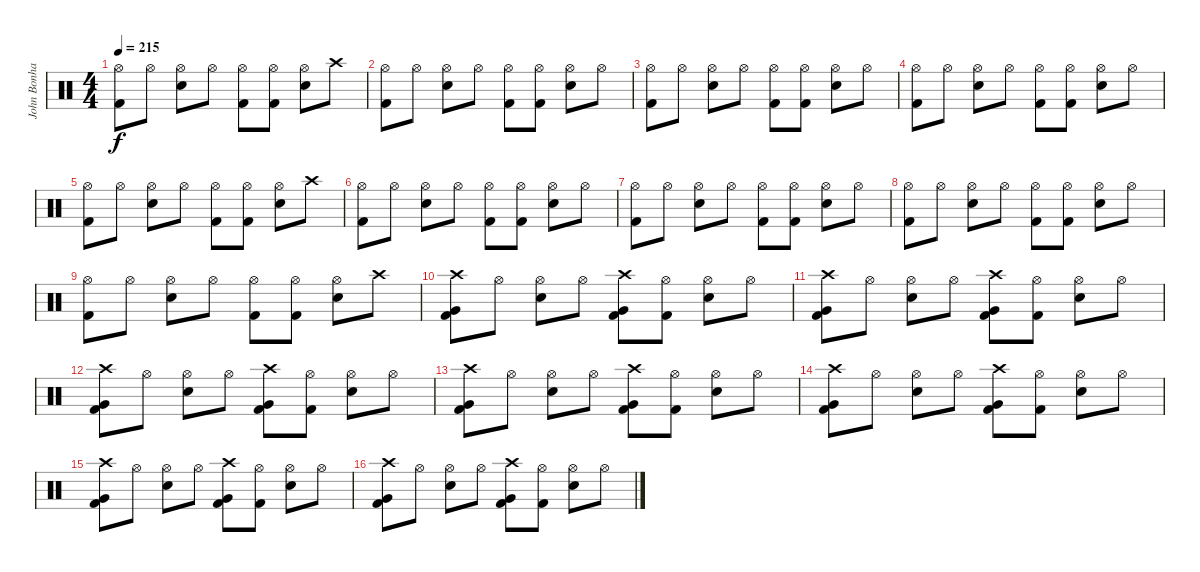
\track ("John Bonham" "John Bonha") {instrument percussion}
\staff {score}
\articulation defaults
\ts (4 4)
\tempo 215
\clef neutral
\ks c
("Hi-Hat (open)" "Kick (hit) 2").8{dy f} "Hi-Hat (open)".8 ("Hi-Hat (open)" "Snare (hit) 2").8 "Hi-Hat (open)".8 ("Hi-Hat (open)" "Kick (hit) 2").8 ("Hi-Hat (open)" "Kick (hit) 2").8 ("Hi-Hat (open)" "Snare (hit) 2").8 "Crash high (hit)".8 |
("Hi-Hat (open)" "Kick (hit) 2").8 "Hi-Hat (open)".8 ("Hi-Hat (open)" "Snare (hit) 2").8 "Hi-Hat (open)".8 ("Hi-Hat (open)" "Kick (hit) 2").8 ("Hi-Hat (open)" "Kick (hit) 2").8 ("Hi-Hat (open)" "Snare (hit) 2").8 "Hi-Hat (open)".8 |
("Hi-Hat (open)" "Kick (hit) 2").8 "Hi-Hat (open)".8 ("Hi-Hat (open)" "Snare (hit) 2").8 "Hi-Hat (open)".8 ("Hi-Hat (open)" "Kick (hit) 2").8 ("Hi-Hat (open)" "Kick (hit) 2").8 ("Hi-Hat (open)" "Snare (hit) 2").8 "Hi-Hat (open)".8 |
("Hi-Hat (open)" "Kick (hit) 2").8 "Hi-Hat (open)".8 ("Hi-Hat (open)" "Snare (hit) 2").8 "Hi-Hat (open)".8 ("Hi-Hat (open)" "Kick (hit) 2").8 ("Hi-Hat (open)" "Kick (hit) 2").8 ("Hi-Hat (open)" "Snare (hit) 2").8 "Hi-Hat (open)".8 |
("Hi-Hat (open)" "Kick (hit) 2").8 "Hi-Hat (open)".8 ("Hi-Hat (open)" "Snare (hit) 2").8 "Hi-Hat (open)".8 ("Hi-Hat (open)" "Kick (hit) 2").8 ("Hi-Hat (open)" "Kick (hit) 2").8 ("Hi-Hat (open)" "Snare (hit) 2").8 "Crash high (hit)".8 |
("Hi-Hat (open)" "Kick (hit) 2").8 "Hi-Hat (open)".8 ("Hi-Hat (open)" "Snare (hit) 2").8 "Hi-Hat (open)".8 ("Hi-Hat (open)" "Kick (hit) 2").8 ("Hi-Hat (open)" "Kick (hit) 2").8 ("Hi-Hat (open)" "Snare (hit) 2").8 "Hi-Hat (open)".8 |
("Hi-Hat (open)" "Kick (hit) 2").8 "Hi-Hat (open)".8 ("Hi-Hat (open)" "Snare (hit) 2").8 "Hi-Hat (open)".8 ("Hi-Hat (open)" "Kick (hit) 2").8 ("Hi-Hat (open)" "Kick (hit) 2").8 ("Hi-Hat (open)" "Snare (hit) 2").8 "Hi-Hat (open)".8 |
("Hi-Hat (open)" "Kick (hit) 2").8 "Hi-Hat (open)".8 ("Hi-Hat (open)" "Snare (hit) 2").8 "Hi-Hat (open)".8 ("Hi-Hat (open)" "Kick (hit) 2").8 ("Hi-Hat (open)" "Kick (hit) 2").8 ("Hi-Hat (open)" "Snare (hit) 2").8 "Hi-Hat (open)".8 |
("Hi-Hat (open)" "Kick (hit) 2").8 "Hi-Hat (open)".8 ("Hi-Hat (open)" "Snare (hit) 2").8 "Hi-Hat (open)".8 ("Hi-Hat (open)" "Kick (hit) 2").8 ("Hi-Hat (open)" "Kick (hit) 2").8 ("Hi-Hat (open)" "Snare (hit) 2").8 "Crash high (hit)".8 |
("Crash high (hit)" "Very Low Tom (hit)" "Kick (hit) 2").8 "Hi-Hat (open)".8 ("Hi-Hat (open)" "Snare (hit) 2").8 "Hi-Hat (open)".8 ("Crash high (hit)" "Very Low Tom (hit)" "Kick (hit) 2").8 ("Hi-Hat (open)" "Kick (hit) 2").8 ("Hi-Hat (open)" "Snare (hit) 2").8 "Hi-Hat (open)".8 |
("Crash high (hit)" "Very Low Tom (hit)" "Kick (hit) 2").8 "Hi-Hat (open)".8 ("Hi-Hat (open)" "Snare (hit) 2").8 "Hi-Hat (open)".8 ("Crash high (hit)" "Very Low Tom (hit)" "Kick (hit) 2").8 ("Hi-Hat (open)" "Kick (hit) 2").8 ("Hi-Hat (open)" "Snare (hit) 2").8 "Hi-Hat (open)".8 |
("Crash high (hit)" "Very Low Tom (hit)" "Kick (hit) 2").8 "Hi-Hat (open)".8 ("Hi-Hat (open)" "Snare (hit) 2").8 "Hi-Hat (open)".8 ("Crash high (hit)" "Very Low Tom (hit)" "Kick (hit) 2").8 ("Hi-Hat (open)" "Kick (hit) 2").8 ("Hi-Hat (open)" "Snare (hit) 2").8 "Hi-Hat (open)".8 |
("Crash high (hit)" "Very Low Tom (hit)" "Kick (hit) 2").8 "Hi-Hat (open)".8 ("Hi-Hat (open)" "Snare (hit) 2").8 "Hi-Hat (open)".8 ("Crash high (hit)" "Very Low Tom (hit)" "Kick (hit) 2").8 ("Hi-Hat (open)" "Kick (hit) 2").8 ("Hi-Hat (open)" "Snare (hit) 2").8 "Hi-Hat (open)".8 |
("Crash high (hit)" "Very Low Tom (hit)" "Kick (hit) 2").8 "Hi-Hat (open)".8 ("Hi-Hat (open)" "Snare (hit) 2").8 "Hi-Hat (open)".8 ("Crash high (hit)" "Very Low Tom (hit)" "Kick (hit) 2").8 ("Hi-Hat (open)" "Kick (hit) 2").8 ("Hi-Hat (open)" "Snare (hit) 2").8 "Hi-Hat (open)".8 |
("Crash high (hit)" "Very Low Tom (hit)" "Kick (hit) 2").8 "Hi-Hat (open)".8 ("Hi-Hat (open)" "Snare (hit) 2").8 "Hi-Hat (open)".8 ("Crash high (hit)" "Very Low Tom (hit)" "Kick (hit) 2").8 ("Hi-Hat (open)" "Kick (hit) 2").8 ("Hi-Hat (open)" "Snare (hit) 2").8 "Hi-Hat (open)".8 |
("Crash high (hit)" "Very Low Tom (hit)" "Kick (hit) 2").8 "Hi-Hat (open)".8 ("Hi-Hat (open)" "Snare (hit) 2").8 "Hi-Hat (open)".8 ("Crash high (hit)" "Very Low Tom (hit)" "Kick (hit) 2").8 ("Hi-Hat (open)" "Kick (hit) 2").8 ("Hi-Hat (open)" "Snare (hit) 2").8 "Hi-Hat (open)".8
